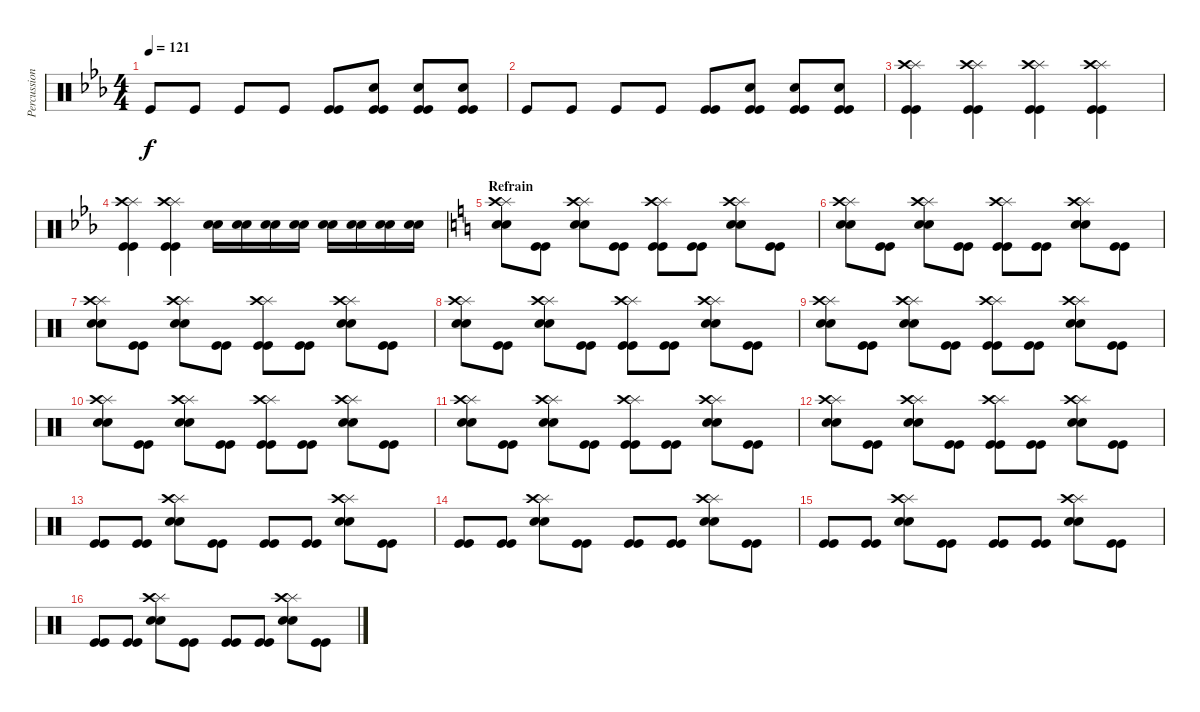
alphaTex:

\track ("Percussions" "Percussion") {instrument percussion}
\staff {score}
\articulation defaults
\ts (4 4)
\tempo 121
\clef neutral
\ks eb "Kick (hit)".8{dy f} "Kick (hit)".8 "Kick (hit)".8 "Kick (hit)".8
("Kick (hit)" "Kick (hit)").8 ("Electric Snare (hit)" "Kick (hit)" "Kick (hit)").8 ("Electric Snare (hit)" "Kick (hit)" "Kick (hit)").8 ("Electric Snare (hit)" "Kick (hit)" "Kick (hit)").8 |
"Kick (hit)".8 "Kick (hit)".8 "Kick (hit)".8 "Kick (hit)".8 ("Kick (hit)" "Kick (hit)").8 ("Electric Snare (hit)" "Kick (hit)" "Kick (hit)").8 ("Electric Snare (hit)" "Kick (hit)" "Kick (hit)").8 ("Electric Snare (hit)" "Kick (hit)" "Kick (hit)").8 |
("Splash (hit)" "Crash high (hit)" "Kick (hit)" "Kick (hit)").4 ("Splash (hit)" "Crash high (hit)" "Kick (hit)" "Kick (hit)").4 ("Splash (hit)" "Crash high (hit)" "Kick (hit)" "Kick (hit)").4 ("Splash (hit)" "Crash high (hit)" "Kick (hit)" "Kick (hit)").4 |
("Splash (hit)" "Crash high (hit)" "Kick (hit)" "Kick (hit)").4 ("Splash (hit)" "Crash high (hit)" "Kick (hit)" "Kick (hit)").4 ("Electric Snare (hit)" "Electric Snare (hit)").16 ("Electric Snare (hit)" "Electric Snare (hit)").16 ("Electric Snare (hit)" "Electric Snare (hit)").16 ("Electric Snare (hit)" "Electric Snare (hit)").16 ("Electric Snare (hit)" "Electric Snare (hit)").16 ("Electric Snare (hit)" "Electric Snare (hit)").16 ("Electric Snare (hit)" "Electric Snare (hit)").16 ("Electric Snare (hit)" "Electric Snare (hit)").16 |
\section ("" "Refrain")
\ks c
("Splash (hit)" "Crash high (hit)" "Electric Snare (hit)" "Electric Snare (hit)").8 ("Kick (hit)" "Kick (hit)").8 ("Splash (hit)" "Crash high (hit)" "Electric Snare (hit)" "Electric Snare (hit)").8 ("Kick (hit)" "Kick (hit)").8 ("Splash (hit)" "Crash high (hit)" "Kick (hit)" "Kick (hit)").8 ("Kick (hit)" "Kick (hit)").8 ("Splash (hit)" "Crash high (hit)" "Electric Snare (hit)" "Electric Snare (hit)").8 ("Kick (hit)" "Kick (hit)").8 |
("Splash (hit)" "Crash high (hit)" "Electric Snare (hit)" "Electric Snare (hit)").8 ("Kick (hit)" "Kick (hit)").8 ("Splash (hit)" "Crash high (hit)" "Electric Snare (hit)" "Electric Snare (hit)").8 ("Kick (hit)" "Kick (hit)").8 ("Splash (hit)" "Crash high (hit)" "Kick (hit)" "Kick (hit)").8 ("Kick (hit)" "Kick (hit)").8 ("Splash (hit)" "Crash high (hit)" "Electric Snare (hit)" "Electric Snare (hit)").8 ("Kick (hit)" "Kick (hit)").8 |
("Splash (hit)" "Crash high (hit)" "Electric Snare (hit)" "Electric Snare (hit)").8 ("Kick (hit)" "Kick (hit)").8 ("Splash (hit)" "Crash high (hit)" "Electric Snare (hit)" "Electric Snare (hit)").8 ("Kick (hit)" "Kick (hit)").8 ("Splash (hit)" "Crash high (hit)" "Kick (hit)" "Kick (hit)").8 ("Kick (hit)" "Kick (hit)").8 ("Splash (hit)" "Crash high (hit)" "Electric Snare (hit)" "Electric Snare (hit)").8 ("Kick (hit)" "Kick (hit)").8 |
("Splash (hit)" "Crash high (hit)" "Electric Snare (hit)" "Electric Snare (hit)").8 ("Kick (hit)" "Kick (hit)").8 ("Splash (hit)" "Crash high (hit)" "Electric Snare (hit)" "Electric Snare (hit)").8 ("Kick (hit)" "Kick (hit)").8 ("Splash (hit)" "Crash high (hit)" "Kick (hit)" "Kick (hit)").8 ("Kick (hit)" "Kick (hit)").8 ("Splash (hit)" "Crash high (hit)" "Electric Snare (hit)" "Electric Snare (hit)").8 ("Kick (hit)" "Kick (hit)").8 |
("Splash (hit)" "Crash high (hit)" "Electric Snare (hit)" "Electric Snare (hit)").8 ("Kick (hit)" "Kick (hit)").8 ("Splash (hit)" "Crash high (hit)" "Electric Snare (hit)" "Electric Snare (hit)").8 ("Kick (hit)" "Kick (hit)").8 ("Splash (hit)" "Crash high (hit)" "Kick (hit)" "Kick (hit)").8 ("Kick (hit)" "Kick (hit)").8 ("Splash (hit)" "Crash high (hit)" "Electric Snare (hit)" "Electric Snare (hit)").8 ("Kick (hit)" "Kick (hit)").8 |
("Splash (hit)" "Crash high (hit)" "Electric Snare (hit)" "Electric Snare (hit)").8 ("Kick (hit)" "Kick (hit)").8 ("Splash (hit)" "Crash high (hit)" "Electric Snare (hit)" "Electric Snare (hit)").8 ("Kick (hit)" "Kick (hit)").8 ("Splash (hit)" "Crash high (hit)" "Kick (hit)" "Kick (hit)").8 ("Kick (hit)" "Kick (hit)").8 ("Splash (hit)" "Crash high (hit)" "Electric Snare (hit)" "Electric Snare (hit)").8 ("Kick (hit)" "Kick (hit)").8 |
("Splash (hit)" "Crash high (hit)" "Electric Snare (hit)" "Electric Snare (hit)").8 ("Kick (hit)" "Kick (hit)").8 ("Splash (hit)" "Crash high (hit)" "Electric Snare (hit)" "Electric Snare (hit)").8 ("Kick (hit)" "Kick (hit)").8 ("Splash (hit)" "Crash high (hit)" "Kick (hit)" "Kick (hit)").8 ("Kick (hit)" "Kick (hit)").8 ("Splash (hit)" "Crash high (hit)" "Electric Snare (hit)" "Electric Snare (hit)").8 ("Kick (hit)" "Kick (hit)").8 |
("Splash (hit)" "Crash high (hit)" "Electric Snare (hit)" "Electric Snare (hit)").8 ("Kick (hit)" "Kick (hit)").8 ("Splash (hit)" "Crash high (hit)" "Electric Snare (hit)" "Electric Snare (hit)").8 ("Kick (hit)" "Kick (hit)").8 ("Splash (hit)" "Crash high (hit)" "Kick (hit)" "Kick (hit)").8 ("Kick (hit)" "Kick (hit)").8 ("Splash (hit)" "Crash high (hit)" "Electric Snare (hit)" "Electric Snare (hit)").8 ("Kick (hit)" "Kick (hit)").8 |
("Kick (hit)" "Kick (hit)").8 ("Kick (hit)" "Kick (hit)").8 ("Splash (hit)" "Crash high (hit)" "Electric Snare (hit)" "Electric Snare (hit)").8 ("Kick (hit)" "Kick (hit)").8 ("Kick (hit)" "Kick (hit)").8 ("Kick (hit)" "Kick (hit)").8 ("Splash (hit)" "Crash high (hit)" "Electric Snare (hit)" "Electric Snare (hit)").8 ("Kick (hit)" "Kick (hit)").8 |
("Kick (hit)" "Kick (hit)").8 ("Kick (hit)" "Kick (hit)").8 ("Splash (hit)" "Crash high (hit)" "Electric Snare (hit)" "Electric Snare (hit)").8 ("Kick (hit)" "Kick (hit)").8 ("Kick (hit)" "Kick (hit)").8 ("Kick (hit)" "Kick (hit)").8 ("Splash (hit)" "Crash high (hit)" "Electric Snare (hit)" "Electric Snare (hit)").8 ("Kick (hit)" "Kick (hit)").8 |
("Kick (hit)" "Kick (hit)").8 ("Kick (hit)" "Kick (hit)").8 ("Splash (hit)" "Crash high (hit)" "Electric Snare (hit)" "Electric Snare (hit)").8 ("Kick (hit)" "Kick (hit)").8 ("Kick (hit)" "Kick (hit)").8 ("Kick (hit)" "Kick (hit)").8 ("Splash (hit)" "Crash high (hit)" "Electric Snare (hit)" "Electric Snare (hit)").8 ("Kick (hit)" "Kick (hit)").8 |
("Kick (hit)" "Kick (hit)").8 ("Kick (hit)" "Kick (hit)").8 ("Splash (hit)" "Crash high (hit)" "Electric Snare (hit)" "Electric Snare (hit)").8 ("Kick (hit)" "Kick (hit)").8 ("Kick (hit)" "Kick (hit)").8 ("Kick (hit)" "Kick (hit)").8 ("Splash (hit)" "Crash high (hit)" "Electric Snare (hit)" "Electric Snare (hit)").8 ("Kick (hit)" "Kick (hit)").8
